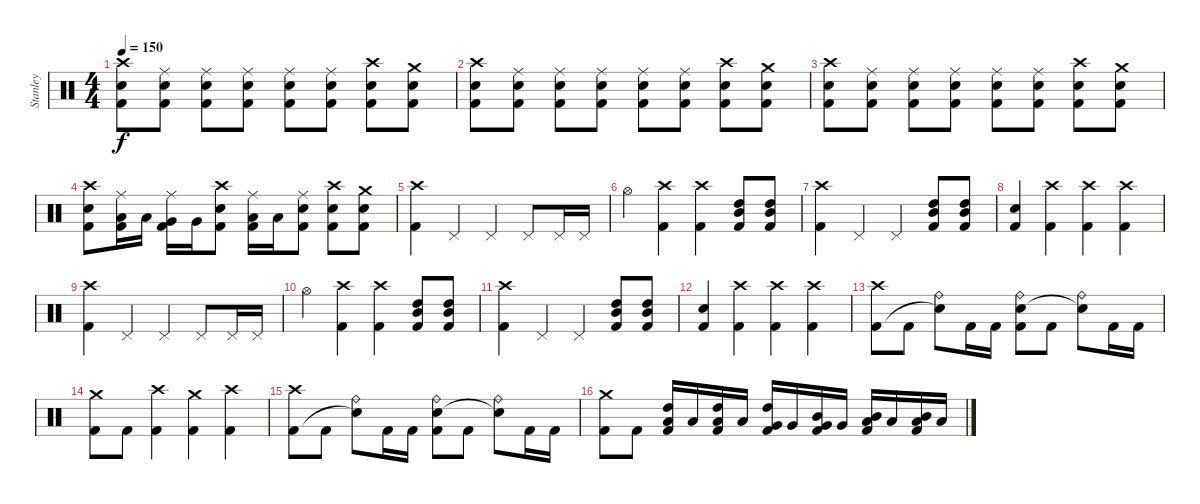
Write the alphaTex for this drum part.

\track ("Stanley" "Stanley") {instrument percussion}
\staff {score}
\articulation defaults
\ts (4 4)
\tempo 150
\clef neutral
\ks c
("Crash high (hit)" "Electric Snare (hit)" "Kick (hit) 2").8{dy f} ("Ride (middle)" "Electric Snare (hit)" "Kick (hit) 2").8 ("Ride (middle)" "Electric Snare (hit)" "Kick (hit) 2").8 ("Ride (middle)" "Electric Snare (hit)" "Kick (hit) 2").8 ("Ride (middle)" "Electric Snare (hit)" "Kick (hit) 2").8 ("Ride (middle)" "Electric Snare (hit)" "Kick (hit) 2").8 ("Crash high (hit)" "Electric Snare (hit)" "Kick (hit) 2").8 ("Crash medium (hit)" "Electric Snare (hit)" "Kick (hit) 2").8 |
("Crash high (hit)" "Electric Snare (hit)" "Kick (hit) 2").8 ("Ride (middle)" "Electric Snare (hit)" "Kick (hit) 2").8 ("Ride (middle)" "Electric Snare (hit)" "Kick (hit) 2").8 ("Ride (middle)" "Electric Snare (hit)" "Kick (hit) 2").8 ("Ride (middle)" "Electric Snare (hit)" "Kick (hit) 2").8 ("Ride (middle)" "Electric Snare (hit)" "Kick (hit) 2").8 ("Crash high (hit)" "Electric Snare (hit)" "Kick (hit) 2").8 ("Crash medium (hit)" "Electric Snare (hit)" "Kick (hit) 2").8 |
("Crash high (hit)" "Electric Snare (hit)" "Kick (hit) 2").8 ("Ride (middle)" "Electric Snare (hit)" "Kick (hit) 2").8 ("Ride (middle)" "Electric Snare (hit)" "Kick (hit) 2").8 ("Ride (middle)" "Electric Snare (hit)" "Kick (hit) 2").8 ("Ride (middle)" "Electric Snare (hit)" "Kick (hit) 2").8 ("Ride (middle)" "Electric Snare (hit)" "Kick (hit) 2").8 ("Crash high (hit)" "Electric Snare (hit)" "Kick (hit) 2").8 ("Crash medium (hit)" "Electric Snare (hit)" "Kick (hit) 2").8 |
("Crash high (hit)" "Electric Snare (hit)" "Kick (hit) 2").8 ("Ride (middle)" "Low Tom (hit)" "Kick (hit) 2").16 "Low Tom (hit)".16 ("Ride (middle)" "Very Low Tom (hit)" "Kick (hit) 2").16 "Very Low Tom (hit)".16 ("Crash high (hit)" "Electric Snare (hit)" "Kick (hit) 2").8 ("Ride (middle)" "Low Floor Tom (hit)" "Kick (hit) 2").16 "Low Floor Tom (hit)".16 ("Ride (middle)" "Electric Snare (hit)" "Kick (hit) 2").8 ("Crash high (hit)" "Electric Snare (hit)" "Kick (hit) 2").8 ("Crash medium (hit)" "Electric Snare (hit)" "Kick (hit) 2").8 |
("Crash high (hit)" "Kick (hit) 2").4 "Pedal Hi-Hat (hit)".4 "Pedal Hi-Hat (hit)".4 "Pedal Hi-Hat (hit)".8 "Pedal Hi-Hat (hit)".16 "Pedal Hi-Hat (hit)".16 |
"Hi-Hat (open)".4 ("Crash high (hit)" "Kick (hit) 2").4 ("Crash high (hit)" "Kick (hit) 2").4 ("High Tom (hit)" "Mid Tom (hit)" "Kick (hit) 2").8 ("High Tom (hit)" "Mid Tom (hit)" "Kick (hit) 2").8 |
("Crash high (hit)" "Kick (hit) 2").4 "Pedal Hi-Hat (hit)".4 "Pedal Hi-Hat (hit)".4 ("High Tom (hit)" "Mid Tom (hit)" "Kick (hit) 2").8 ("High Tom (hit)" "Mid Tom (hit)" "Kick (hit) 2").8 |
("Electric Snare (hit)" "Kick (hit) 2").4 ("Crash high (hit)" "Kick (hit) 2").4 ("Crash high (hit)" "Kick (hit) 2").4 ("Crash high (hit)" "Kick (hit) 2").4 |
("Crash high (hit)" "Kick (hit) 2").4 "Pedal Hi-Hat (hit)".4 "Pedal Hi-Hat (hit)".4 "Pedal Hi-Hat (hit)".8 "Pedal Hi-Hat (hit)".16 "Pedal Hi-Hat (hit)".16 |
"Hi-Hat (open)".4 ("Crash high (hit)" "Kick (hit) 2").4 ("Crash high (hit)" "Kick (hit) 2").4 ("High Tom (hit)" "Mid Tom (hit)" "Kick (hit) 2").8 ("High Tom (hit)" "Mid Tom (hit)" "Kick (hit) 2").8 |
("Crash high (hit)" "Kick (hit) 2").4 "Pedal Hi-Hat (hit)".4 "Pedal Hi-Hat (hit)".4 ("High Tom (hit)" "Mid Tom (hit)" "Kick (hit) 2").8 ("High Tom (hit)" "Mid Tom (hit)" "Kick (hit) 2").8 |
("Electric Snare (hit)" "Kick (hit) 2").4 ("Crash high (hit)" "Kick (hit) 2").4 ("Crash high (hit)" "Kick (hit) 2").4 ("Crash high (hit)" "Kick (hit) 2").4 |
("Crash high (hit)" "Kick (hit) 2").8 "Kick (hit) 2".8 ("Ride (bell)" "Snare (hit)"{t}).8 "Kick (hit) 2".16 "Kick (hit) 2".16 ("Ride (bell)" "Electric Snare (hit)" "Kick (hit) 2").8 "Kick (hit) 2".8 ("Ride (bell)" "Snare (hit)"{t}).8 "Kick (hit) 2".16 "Kick (hit) 2".16 |
("Crash medium (hit)" "Kick (hit) 2").8 "Kick (hit) 2".8 ("Crash high (hit)" "Kick (hit) 2").4 ("Crash medium (hit)" "Kick (hit) 2").4 ("Crash high (hit)" "Kick (hit) 2").4 |
("Crash high (hit)" "Kick (hit) 2").8 "Kick (hit) 2".8 ("Ride (bell)" "Snare (hit)"{t}).8 "Kick (hit) 2".16 "Kick (hit) 2".16 ("Ride (bell)" "Electric Snare (hit)" "Kick (hit) 2").8 "Kick (hit) 2".8 ("Ride (bell)" "Snare (hit)"{t}).8 "Kick (hit) 2".16 "Kick (hit) 2".16 |
("Crash medium (hit)" "Kick (hit) 2").8 "Kick (hit) 2".8 ("High Tom (hit)" "Low Tom (hit)" "Kick (hit) 2").16 "Low Tom (hit)".16 ("High Tom (hit)" "Low Tom (hit)" "Kick (hit) 2").16 "Low Tom (hit)".16 ("High Tom (hit)" "Very Low Tom (hit)" "Kick (hit) 2").16 "Very Low Tom (hit)".16 ("Mid Tom (hit)" "Very Low Tom (hit)" "Kick (hit) 2").16 "Very Low Tom (hit)".16 ("Mid Tom (hit)" "Low Floor Tom (hit)" "Kick (hit) 2").16 "Low Floor Tom (hit)".16 ("Mid Tom (hit)" "Low Floor Tom (hit)" "Kick (hit) 2").16 "Low Floor Tom (hit)".16
